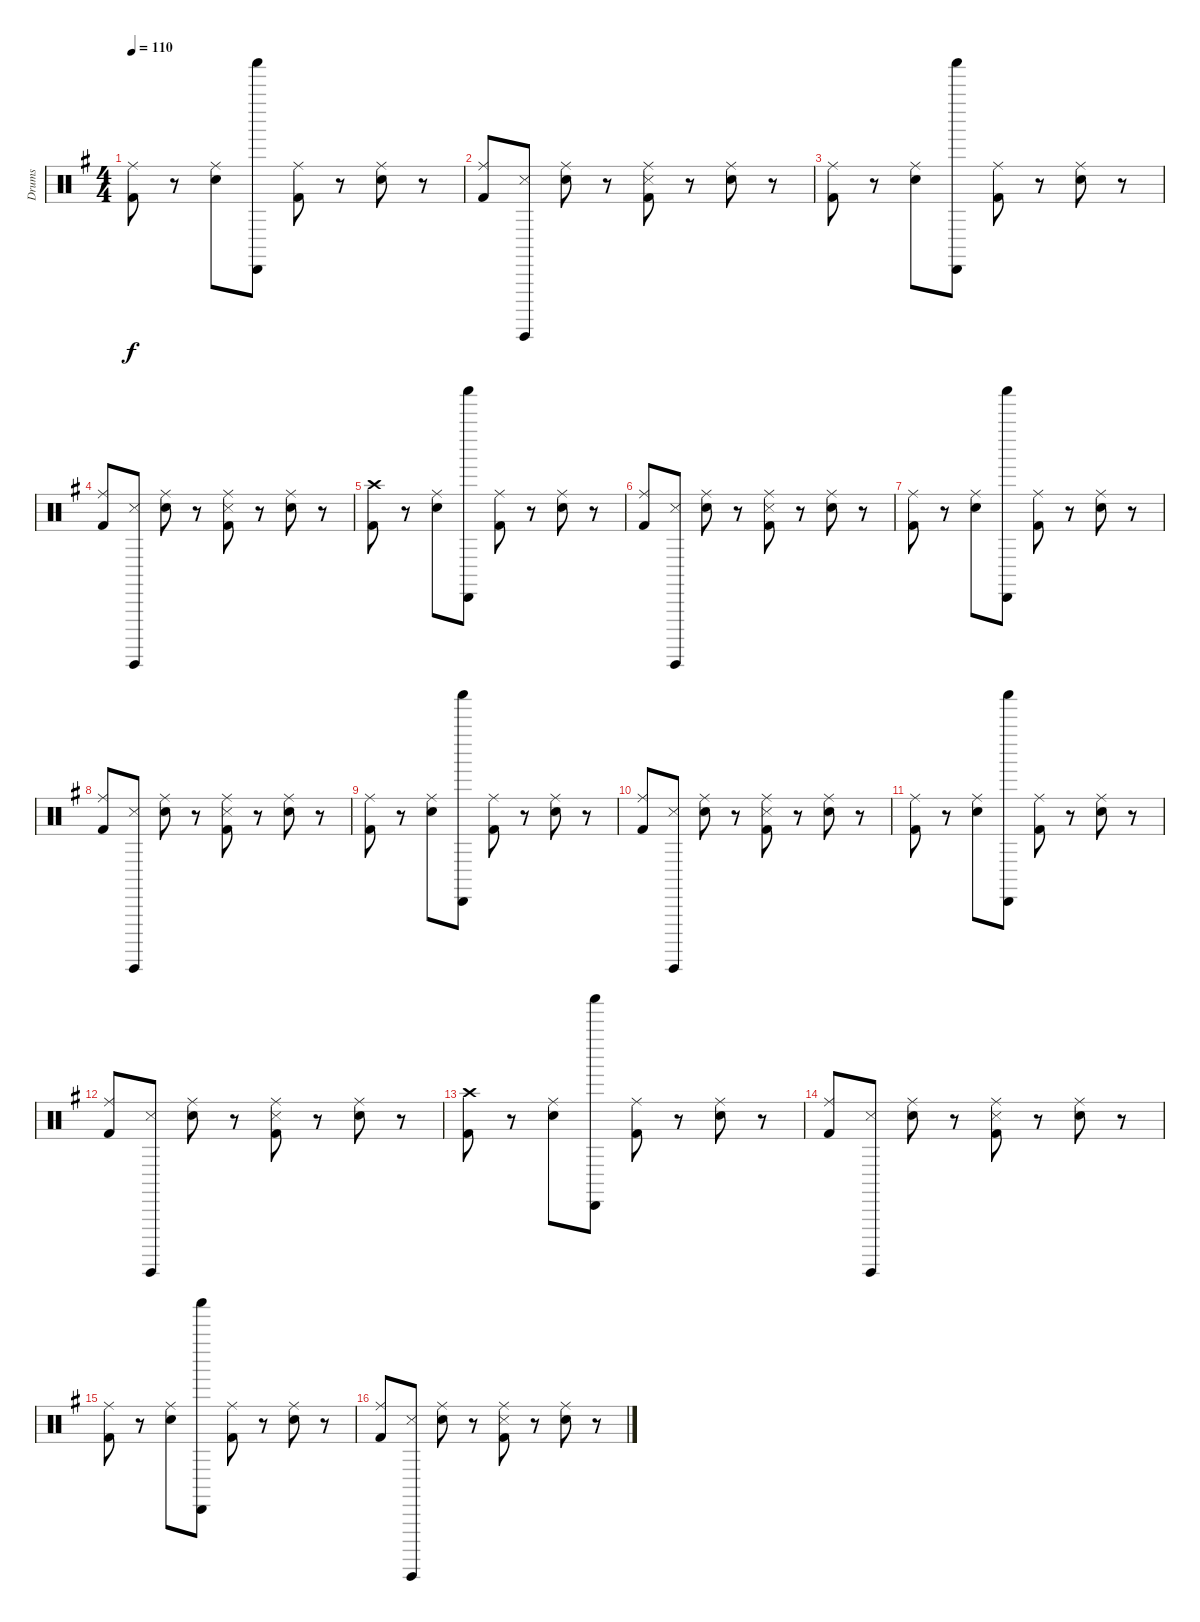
\track ("Drums" "Drums") {instrument percussion}
\staff {score}
\articulation defaults
\ts (4 4)
\tempo 110
\clef neutral
\ks eminor
("Ride (middle)" "Kick (hit) 2").8{dy f} r.8 ("Ride (middle)" "Electric Snare (hit)").8 ("Shaker (hit)" "Cabasa (hit)").8 ("Ride (middle)" "Kick (hit) 2").8 r.8 ("Ride (middle)" "Electric Snare (hit)").8 r.8 |
("Ride (middle)" "Kick (hit) 2").8 ("Snare (side stick) 3" "Guiro (hit)").8 ("Ride (middle)" "Electric Snare (hit)").8 r.8 ("Ride (middle)" "Snare (side stick) 3" "Kick (hit) 2").8 r.8 ("Ride (middle)" "Electric Snare (hit)").8 r.8 |
("Ride (middle)" "Kick (hit) 2").8 r.8 ("Ride (middle)" "Electric Snare (hit)").8 ("Shaker (hit)" "Cabasa (hit)").8 ("Ride (middle)" "Kick (hit) 2").8 r.8 ("Ride (middle)" "Electric Snare (hit)").8 r.8 |
("Ride (middle)" "Kick (hit) 2").8 ("Snare (side stick) 3" "Guiro (hit)").8 ("Ride (middle)" "Electric Snare (hit)").8 r.8 ("Ride (middle)" "Snare (side stick) 3" "Kick (hit) 2").8 r.8 ("Ride (middle)" "Electric Snare (hit)").8 r.8 |
("Crash high (hit)" "Kick (hit) 2").8 r.8 ("Ride (middle)" "Electric Snare (hit)").8 ("Shaker (hit)" "Cabasa (hit)").8 ("Ride (middle)" "Kick (hit) 2").8 r.8 ("Ride (middle)" "Electric Snare (hit)").8 r.8 |
("Ride (middle)" "Kick (hit) 2").8 ("Snare (side stick) 3" "Guiro (hit)").8 ("Ride (middle)" "Electric Snare (hit)").8 r.8 ("Ride (middle)" "Snare (side stick) 3" "Kick (hit) 2").8 r.8 ("Ride (middle)" "Electric Snare (hit)").8 r.8 |
("Ride (middle)" "Kick (hit) 2").8 r.8 ("Ride (middle)" "Electric Snare (hit)").8 ("Shaker (hit)" "Cabasa (hit)").8 ("Ride (middle)" "Kick (hit) 2").8 r.8 ("Ride (middle)" "Electric Snare (hit)").8 r.8 |
("Ride (middle)" "Kick (hit) 2").8 ("Snare (side stick) 3" "Guiro (hit)").8 ("Ride (middle)" "Electric Snare (hit)").8 r.8 ("Ride (middle)" "Snare (side stick) 3" "Kick (hit) 2").8 r.8 ("Ride (middle)" "Electric Snare (hit)").8 r.8 |
("Ride (middle)" "Kick (hit) 2").8 r.8 ("Ride (middle)" "Electric Snare (hit)").8 ("Shaker (hit)" "Cabasa (hit)").8 ("Ride (middle)" "Kick (hit) 2").8 r.8 ("Ride (middle)" "Electric Snare (hit)").8 r.8 |
("Ride (middle)" "Kick (hit) 2").8 ("Snare (side stick) 3" "Guiro (hit)").8 ("Ride (middle)" "Electric Snare (hit)").8 r.8 ("Ride (middle)" "Snare (side stick) 3" "Kick (hit) 2").8 r.8 ("Ride (middle)" "Electric Snare (hit)").8 r.8 |
("Ride (middle)" "Kick (hit) 2").8 r.8 ("Ride (middle)" "Electric Snare (hit)").8 ("Shaker (hit)" "Cabasa (hit)").8 ("Ride (middle)" "Kick (hit) 2").8 r.8 ("Ride (middle)" "Electric Snare (hit)").8 r.8 |
("Ride (middle)" "Kick (hit) 2").8 ("Snare (side stick) 3" "Guiro (hit)").8 ("Ride (middle)" "Electric Snare (hit)").8 r.8 ("Ride (middle)" "Snare (side stick) 3" "Kick (hit) 2").8 r.8 ("Ride (middle)" "Electric Snare (hit)").8 r.8 |
("Crash high (hit)" "Kick (hit) 2").8 r.8 ("Ride (middle)" "Electric Snare (hit)").8 ("Shaker (hit)" "Cabasa (hit)").8 ("Ride (middle)" "Kick (hit) 2").8 r.8 ("Ride (middle)" "Electric Snare (hit)").8 r.8 |
("Ride (middle)" "Kick (hit) 2").8 ("Snare (side stick) 3" "Guiro (hit)").8 ("Ride (middle)" "Electric Snare (hit)").8 r.8 ("Ride (middle)" "Snare (side stick) 3" "Kick (hit) 2").8 r.8 ("Ride (middle)" "Electric Snare (hit)").8 r.8 |
("Ride (middle)" "Kick (hit) 2").8 r.8 ("Ride (middle)" "Electric Snare (hit)").8 ("Shaker (hit)" "Cabasa (hit)").8 ("Ride (middle)" "Kick (hit) 2").8 r.8 ("Ride (middle)" "Electric Snare (hit)").8 r.8 |
("Ride (middle)" "Kick (hit) 2").8 ("Snare (side stick) 3" "Guiro (hit)").8 ("Ride (middle)" "Electric Snare (hit)").8 r.8 ("Ride (middle)" "Snare (side stick) 3" "Kick (hit) 2").8 r.8 ("Ride (middle)" "Electric Snare (hit)").8 r.8
